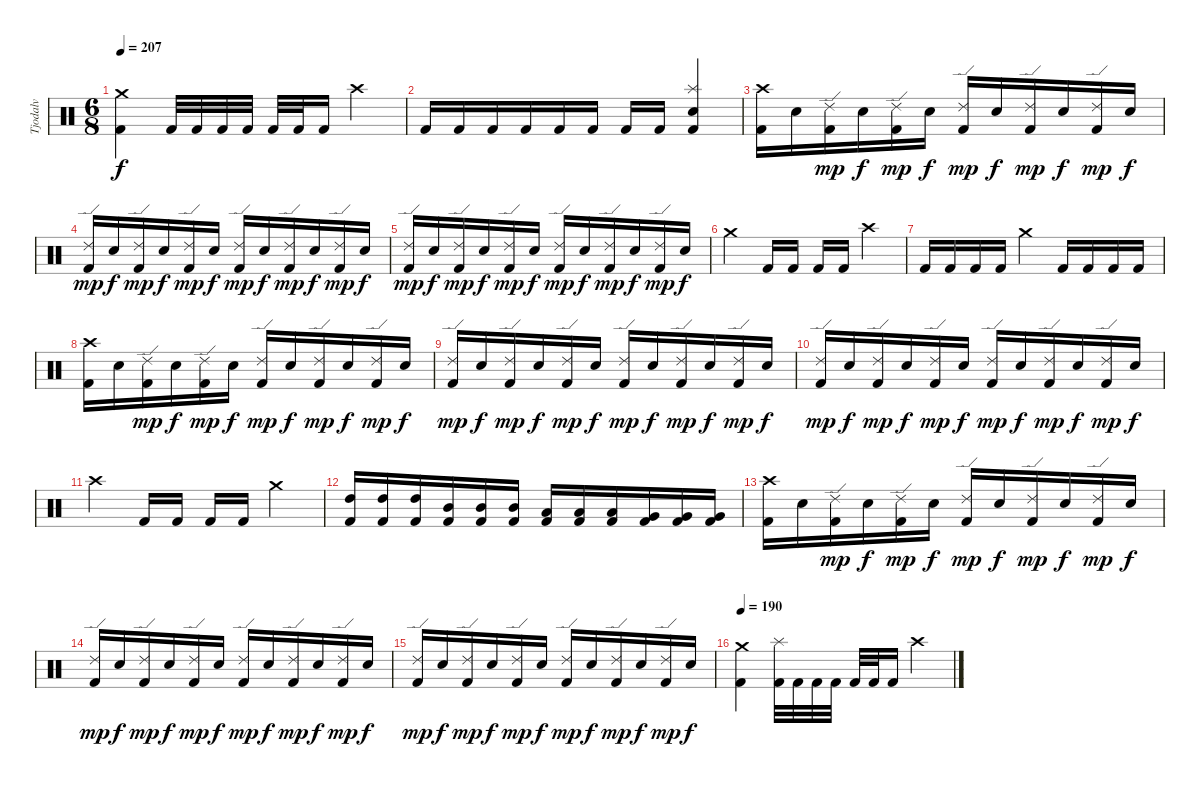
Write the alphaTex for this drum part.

\track ("Tjodalv" "Tjodalv") {instrument percussion}
\staff {score}
\articulation defaults
\ts (6 8)
\tempo 207
\clef neutral
\ks c
("Crash medium (hit)" "Kick (hit) 2").4{dy f} "Kick (hit) 2".32 "Kick (hit) 2".32 "Kick (hit) 2".32 "Kick (hit) 2".32 "Kick (hit) 2".32 "Kick (hit) 2".32 "Kick (hit) 2".16 "Crash high (hit)".4 |
"Kick (hit) 2".16 "Kick (hit) 2".16 "Kick (hit) 2".16 "Kick (hit) 2".16 "Kick (hit) 2".16 "Kick (hit) 2".16 "Kick (hit) 2".16 "Kick (hit) 2".16 ("Splash (hit)" "Electric Snare (hit)" "Kick (hit) 2").4 |
("Crash high (hit)" "Kick (hit) 2").16 "Electric Snare (hit)".16 ("Ride (edge) 2" "Kick (hit) 2").16{dy mp} "Electric Snare (hit)".16{dy f} ("Ride (edge) 2" "Kick (hit) 2").16{dy mp} "Electric Snare (hit)".16{dy f} ("Ride (edge) 2" "Kick (hit) 2").16{dy mp} "Electric Snare (hit)".16{dy f} ("Ride (edge) 2" "Kick (hit) 2").16{dy mp} "Electric Snare (hit)".16{dy f} ("Ride (edge) 2" "Kick (hit) 2").16{dy mp} "Electric Snare (hit)".16{dy f} |
("Ride (edge) 2" "Kick (hit) 2").16{dy mp} "Electric Snare (hit)".16{dy f} ("Ride (edge) 2" "Kick (hit) 2").16{dy mp} "Electric Snare (hit)".16{dy f} ("Ride (edge) 2" "Kick (hit) 2").16{dy mp} "Electric Snare (hit)".16{dy f} ("Ride (edge) 2" "Kick (hit) 2").16{dy mp} "Electric Snare (hit)".16{dy f} ("Ride (edge) 2" "Kick (hit) 2").16{dy mp} "Electric Snare (hit)".16{dy f} ("Ride (edge) 2" "Kick (hit) 2").16{dy mp} "Electric Snare (hit)".16{dy f} |
("Ride (edge) 2" "Kick (hit) 2").16{dy mp} "Electric Snare (hit)".16{dy f} ("Ride (edge) 2" "Kick (hit) 2").16{dy mp} "Electric Snare (hit)".16{dy f} ("Ride (edge) 2" "Kick (hit) 2").16{dy mp} "Electric Snare (hit)".16{dy f} ("Ride (edge) 2" "Kick (hit) 2").16{dy mp} "Electric Snare (hit)".16{dy f} ("Ride (edge) 2" "Kick (hit) 2").16{dy mp} "Electric Snare (hit)".16{dy f} ("Ride (edge) 2" "Kick (hit) 2").16{dy mp} "Electric Snare (hit)".16{dy f} |
"Crash medium (hit)".4 "Kick (hit) 2".16 "Kick (hit) 2".16 "Kick (hit) 2".16 "Kick (hit) 2".16 "Crash high (hit)".4 |
"Kick (hit) 2".16 "Kick (hit) 2".16 "Kick (hit) 2".16 "Kick (hit) 2".16 "Crash medium (hit)".4 "Kick (hit) 2".16 "Kick (hit) 2".16 "Kick (hit) 2".16 "Kick (hit) 2".16 |
("Crash high (hit)" "Kick (hit) 2").16 "Electric Snare (hit)".16 ("Ride (edge) 2" "Kick (hit) 2").16{dy mp} "Electric Snare (hit)".16{dy f} ("Ride (edge) 2" "Kick (hit) 2").16{dy mp} "Electric Snare (hit)".16{dy f} ("Ride (edge) 2" "Kick (hit) 2").16{dy mp} "Electric Snare (hit)".16{dy f} ("Ride (edge) 2" "Kick (hit) 2").16{dy mp} "Electric Snare (hit)".16{dy f} ("Ride (edge) 2" "Kick (hit) 2").16{dy mp} "Electric Snare (hit)".16{dy f} |
("Ride (edge) 2" "Kick (hit) 2").16{dy mp} "Electric Snare (hit)".16{dy f} ("Ride (edge) 2" "Kick (hit) 2").16{dy mp} "Electric Snare (hit)".16{dy f} ("Ride (edge) 2" "Kick (hit) 2").16{dy mp} "Electric Snare (hit)".16{dy f} ("Ride (edge) 2" "Kick (hit) 2").16{dy mp} "Electric Snare (hit)".16{dy f} ("Ride (edge) 2" "Kick (hit) 2").16{dy mp} "Electric Snare (hit)".16{dy f} ("Ride (edge) 2" "Kick (hit) 2").16{dy mp} "Electric Snare (hit)".16{dy f} |
("Ride (edge) 2" "Kick (hit) 2").16{dy mp} "Electric Snare (hit)".16{dy f} ("Ride (edge) 2" "Kick (hit) 2").16{dy mp} "Electric Snare (hit)".16{dy f} ("Ride (edge) 2" "Kick (hit) 2").16{dy mp} "Electric Snare (hit)".16{dy f} ("Ride (edge) 2" "Kick (hit) 2").16{dy mp} "Electric Snare (hit)".16{dy f} ("Ride (edge) 2" "Kick (hit) 2").16{dy mp} "Electric Snare (hit)".16{dy f} ("Ride (edge) 2" "Kick (hit) 2").16{dy mp} "Electric Snare (hit)".16{dy f} |
"Crash high (hit)".4 "Kick (hit) 2".16 "Kick (hit) 2".16 "Kick (hit) 2".16 "Kick (hit) 2".16 "Crash medium (hit)".4 |
("High Tom (hit)" "Kick (hit) 2").16 ("High Tom (hit)" "Kick (hit) 2").16 ("High Tom (hit)" "Kick (hit) 2").16 ("Mid Tom (hit)" "Kick (hit) 2").16 ("Mid Tom (hit)" "Kick (hit) 2").16 ("Mid Tom (hit)" "Kick (hit) 2").16 ("Low Tom (hit)" "Kick (hit) 2").16 ("Low Tom (hit)" "Kick (hit) 2").16 ("Low Tom (hit)" "Kick (hit) 2").16 ("Very Low Tom (hit)" "Kick (hit) 2").16 ("Very Low Tom (hit)" "Kick (hit) 2").16 ("Very Low Tom (hit)" "Kick (hit) 2").16 |
("Crash high (hit)" "Kick (hit) 2").16 "Electric Snare (hit)".16 ("Ride (edge) 2" "Kick (hit) 2").16{dy mp} "Electric Snare (hit)".16{dy f} ("Ride (edge) 2" "Kick (hit) 2").16{dy mp} "Electric Snare (hit)".16{dy f} ("Ride (edge) 2" "Kick (hit) 2").16{dy mp} "Electric Snare (hit)".16{dy f} ("Ride (edge) 2" "Kick (hit) 2").16{dy mp} "Electric Snare (hit)".16{dy f} ("Ride (edge) 2" "Kick (hit) 2").16{dy mp} "Electric Snare (hit)".16{dy f} |
("Ride (edge) 2" "Kick (hit) 2").16{dy mp} "Electric Snare (hit)".16{dy f} ("Ride (edge) 2" "Kick (hit) 2").16{dy mp} "Electric Snare (hit)".16{dy f} ("Ride (edge) 2" "Kick (hit) 2").16{dy mp} "Electric Snare (hit)".16{dy f} ("Ride (edge) 2" "Kick (hit) 2").16{dy mp} "Electric Snare (hit)".16{dy f} ("Ride (edge) 2" "Kick (hit) 2").16{dy mp} "Electric Snare (hit)".16{dy f} ("Ride (edge) 2" "Kick (hit) 2").16{dy mp} "Electric Snare (hit)".16{dy f} |
("Ride (edge) 2" "Kick (hit) 2").16{dy mp} "Electric Snare (hit)".16{dy f} ("Ride (edge) 2" "Kick (hit) 2").16{dy mp} "Electric Snare (hit)".16{dy f} ("Ride (edge) 2" "Kick (hit) 2").16{dy mp} "Electric Snare (hit)".16{dy f} ("Ride (edge) 2" "Kick (hit) 2").16{dy mp} "Electric Snare (hit)".16{dy f} ("Ride (edge) 2" "Kick (hit) 2").16{dy mp} "Electric Snare (hit)".16{dy f} ("Ride (edge) 2" "Kick (hit) 2").16{dy mp} "Electric Snare (hit)".16{dy f} |
\tempo 190
("Crash medium (hit)" "Kick (hit) 2").4 ("Splash (hit)" "Kick (hit) 2").32 "Kick (hit) 2".32 "Kick (hit) 2".32 "Kick (hit) 2".32 "Kick (hit) 2".32 "Kick (hit) 2".32 "Kick (hit) 2".16 "Crash high (hit)".4
